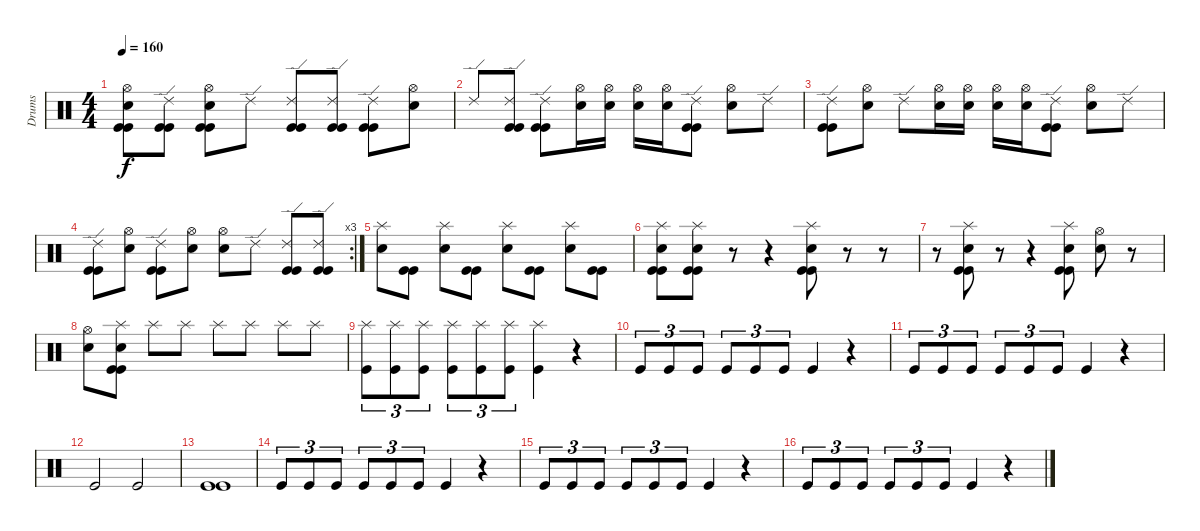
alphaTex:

\track ("Drums" "Drums") {instrument percussion}
\staff {score}
\articulation defaults
\ts (4 4)
\tempo 160
\clef neutral
\ks c
("Hi-Hat (open)" "Snare (hit) 2" "Kick (hit)" "Kick (hit)").8{dy f} ("Ride (edge) 2" "Kick (hit)" "Kick (hit)").8 ("Hi-Hat (open)" "Snare (hit) 2" "Kick (hit)" "Kick (hit)").8 "Ride (edge) 2".8 ("Ride (edge) 2" "Kick (hit)" "Kick (hit)").8 ("Ride (edge) 2" "Kick (hit)" "Kick (hit)").8 ("Ride (edge) 2" "Kick (hit)" "Kick (hit)").8 ("Hi-Hat (open)" "Snare (hit) 2").8 |
"Ride (edge) 2".8 ("Ride (edge) 2" "Kick (hit)" "Kick (hit)").8 ("Ride (edge) 2" "Kick (hit)" "Kick (hit)").8 ("Hi-Hat (open)" "Snare (hit) 2").16 ("Hi-Hat (open)" "Snare (hit) 2").16 ("Hi-Hat (open)" "Snare (hit) 2").16 ("Hi-Hat (open)" "Snare (hit) 2").16 ("Ride (edge) 2" "Kick (hit)" "Kick (hit)").8 ("Hi-Hat (open)" "Snare (hit) 2").8 "Ride (edge) 2".8 |
("Ride (edge) 2" "Kick (hit)" "Kick (hit)").8 ("Hi-Hat (open)" "Snare (hit) 2").8 "Ride (edge) 2".8 ("Hi-Hat (open)" "Snare (hit) 2").16 ("Hi-Hat (open)" "Snare (hit) 2").16 ("Hi-Hat (open)" "Snare (hit) 2").16 ("Hi-Hat (open)" "Snare (hit) 2").16 ("Ride (edge) 2" "Kick (hit)" "Kick (hit)").8 ("Hi-Hat (open)" "Snare (hit) 2").8 "Ride (edge) 2".8 |
\rc 3
("Ride (edge) 2" "Kick (hit)" "Kick (hit)").8 ("Hi-Hat (open)" "Snare (hit) 2").8 ("Ride (edge) 2" "Kick (hit)" "Kick (hit)").8 ("Hi-Hat (open)" "Snare (hit) 2").8 ("Hi-Hat (open)" "Snare (hit) 2").8 "Ride (edge) 2".8 ("Ride (edge) 2" "Kick (hit)" "Kick (hit)").8 ("Ride (edge) 2" "Kick (hit)" "Kick (hit)").8 |
("Splash (hit)" "Snare (hit) 2").8 ("Kick (hit)" "Kick (hit)").8 ("Splash (hit)" "Snare (hit) 2").8 ("Kick (hit)" "Kick (hit)").8 ("Splash (hit)" "Snare (hit) 2").8 ("Kick (hit)" "Kick (hit)").8 ("Splash (hit)" "Snare (hit) 2").8 ("Kick (hit)" "Kick (hit)").8 |
("Splash (hit)" "Snare (hit) 2" "Kick (hit)" "Kick (hit)").8 ("Splash (hit)" "Snare (hit) 2" "Kick (hit)" "Kick (hit)").8 r.8 r.4 ("Splash (hit)" "Snare (hit) 2" "Kick (hit)" "Kick (hit)").8 r.8 r.8 |
r.8 ("Splash (hit)" "Snare (hit) 2" "Kick (hit)" "Kick (hit)").8 r.8 r.4 ("Splash (hit)" "Snare (hit) 2" "Kick (hit)" "Kick (hit)").8 ("Hi-Hat (open)" "Snare (hit) 2").8 r.8 |
("Hi-Hat (open)" "Snare (hit) 2").8 ("Splash (hit)" "Snare (hit) 2" "Kick (hit)" "Kick (hit)").8 "Splash (hit)".8 "Splash (hit)".8 "Splash (hit)".8 "Splash (hit)".8 "Splash (hit)".8 "Splash (hit)".8 |
("Splash (hit)" "Kick (hit)").8{tu (3 2)} ("Splash (hit)" "Kick (hit)").8{tu (3 2)} ("Splash (hit)" "Kick (hit)").8{tu (3 2)} ("Splash (hit)" "Kick (hit)").8{tu (3 2)} ("Splash (hit)" "Kick (hit)").8{tu (3 2)} ("Splash (hit)" "Kick (hit)").8{tu (3 2)} ("Splash (hit)" "Kick (hit)").4 r.4 |
"Kick (hit)".8{tu (3 2)} "Kick (hit)".8{tu (3 2)} "Kick (hit)".8{tu (3 2)} "Kick (hit)".8{tu (3 2)} "Kick (hit)".8{tu (3 2)} "Kick (hit)".8{tu (3 2)} "Kick (hit)".4 r.4 |
"Kick (hit)".8{tu (3 2)} "Kick (hit)".8{tu (3 2)} "Kick (hit)".8{tu (3 2)} "Kick (hit)".8{tu (3 2)} "Kick (hit)".8{tu (3 2)} "Kick (hit)".8{tu (3 2)} "Kick (hit)".4 r.4 |
"Kick (hit)".2 "Kick (hit)".2 |
("Kick (hit)" "Kick (hit)").1 |
"Kick (hit)".8{tu (3 2)} "Kick (hit)".8{tu (3 2)} "Kick (hit)".8{tu (3 2)} "Kick (hit)".8{tu (3 2)} "Kick (hit)".8{tu (3 2)} "Kick (hit)".8{tu (3 2)} "Kick (hit)".4 r.4 |
"Kick (hit)".8{tu (3 2)} "Kick (hit)".8{tu (3 2)} "Kick (hit)".8{tu (3 2)} "Kick (hit)".8{tu (3 2)} "Kick (hit)".8{tu (3 2)} "Kick (hit)".8{tu (3 2)} "Kick (hit)".4 r.4 |
"Kick (hit)".8{tu (3 2)} "Kick (hit)".8{tu (3 2)} "Kick (hit)".8{tu (3 2)} "Kick (hit)".8{tu (3 2)} "Kick (hit)".8{tu (3 2)} "Kick (hit)".8{tu (3 2)} "Kick (hit)".4 r.4
